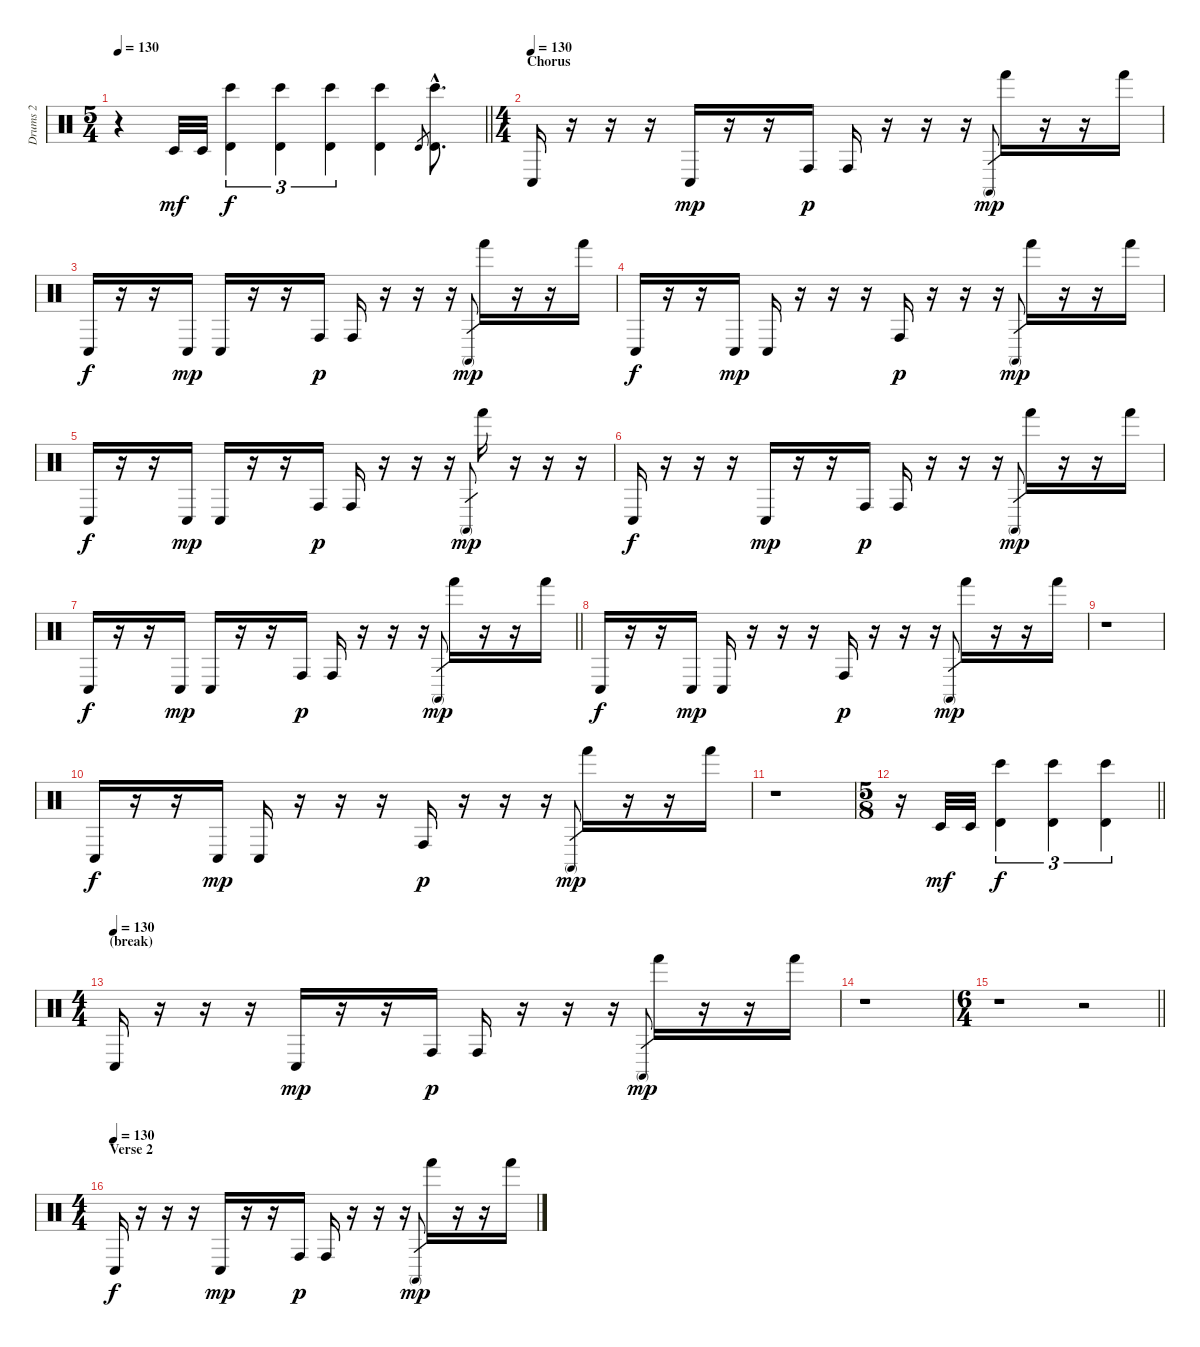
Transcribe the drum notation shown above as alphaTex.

\track ("Drums 2" "Drums 2") {instrument percussion}
\staff {score}
\articulation defaults
\ts (5 4)
\tempo 130
\clef neutral
\barLineRight lightlight
\ks c
r.4{dy mp} "Timbale low (hit)".32{dy mf} "Timbale low (hit)".32 ("Bongo High (hit)" "Timbale high (hit)").4{tu (3 2) dy f} ("Bongo High (hit)" "Timbale high (hit)").4{tu (3 2)} ("Bongo High (hit)" "Timbale high (hit)").4{tu (3 2)} ("Bongo High (hit)" "Timbale high (hit)").4 "Timbale high (hit)".8{gr} ("Bongo High (hit)"{hac} "Timbale high (hit)"{hac}).8{d} |
\ts (4 4)
\section ("" "Chorus")
\tempo (130)
"Conga low (hit)".16 r.16 r.16 r.16 "Conga low (hit)".16{dy mp} r.16 r.16 "Conga high (hit)".16{dy p} "Conga high (hit)".16 r.16 r.16 r.16 "Conga high (mute)".8{gr dy mp} "Hand (hit)".16 r.16 r.16 "Hand (hit)".16 |
"Conga low (hit)".16{dy f} r.16 r.16 "Conga low (hit)".16{dy mp} "Conga low (hit)".16 r.16 r.16 "Conga high (hit)".16{dy p} "Conga high (hit)".16 r.16 r.16 r.16 "Conga high (mute)".8{gr dy mp} "Hand (hit)".16 r.16 r.16 "Hand (hit)".16 |
"Conga low (hit)".16{dy f} r.16 r.16 "Conga low (hit)".16{dy mp} "Conga low (hit)".16 r.16 r.16 r.16 "Conga high (hit)".16{dy p} r.16 r.16 r.16 "Conga high (mute)".8{gr dy mp} "Hand (hit)".16 r.16 r.16 "Hand (hit)".16 |
"Conga low (hit)".16{dy f} r.16 r.16 "Conga low (hit)".16{dy mp} "Conga low (hit)".16 r.16 r.16 "Conga high (hit)".16{dy p} "Conga high (hit)".16 r.16 r.16 r.16 "Conga high (mute)".8{gr dy mp} "Hand (hit)".16 r.16 r.16 r.16 |
"Conga low (hit)".16{dy f} r.16 r.16 r.16 "Conga low (hit)".16{dy mp} r.16 r.16 "Conga high (hit)".16{dy p} "Conga high (hit)".16 r.16 r.16 r.16 "Conga high (mute)".8{gr dy mp} "Hand (hit)".16 r.16 r.16 "Hand (hit)".16 |
\barLineRight lightlight "Conga low (hit)".16{dy f}
r.16 r.16 "Conga low (hit)".16{dy mp} "Conga low (hit)".16 r.16 r.16 "Conga high (hit)".16{dy p} "Conga high (hit)".16 r.16 r.16 r.16 "Conga high (mute)".8{gr dy mp} "Hand (hit)".16 r.16 r.16 "Hand (hit)".16 |
"Conga low (hit)".16{dy f} r.16 r.16 "Conga low (hit)".16{dy mp} "Conga low (hit)".16 r.16 r.16 r.16 "Conga high (hit)".16{dy p} r.16 r.16 r.16 "Conga high (mute)".8{gr dy mp} "Hand (hit)".16 r.16 r.16 "Hand (hit)".16 |
r.1 |
"Conga low (hit)".16{dy f} r.16 r.16 "Conga low (hit)".16{dy mp} "Conga low (hit)".16 r.16 r.16 r.16 "Conga high (hit)".16{dy p} r.16 r.16 r.16 "Conga high (mute)".8{gr dy mp} "Hand (hit)".16 r.16 r.16 "Hand (hit)".16 |
r.1 |
\ts (5 8)
\barLineRight lightlight
r.16 "Timbale low (hit)".32{dy mf} "Timbale low (hit)".32 ("Bongo High (hit)" "Timbale high (hit)").4{tu (3 2) dy f} ("Bongo High (hit)" "Timbale high (hit)").4{tu (3 2)} ("Bongo High (hit)" "Timbale high (hit)").4{tu (3 2)} |
\ts (4 4)
\section ("" "(break)")
\tempo (130)
"Conga low (hit)".16 r.16 r.16 r.16 "Conga low (hit)".16{dy mp} r.16 r.16 "Conga high (hit)".16{dy p} "Conga high (hit)".16 r.16 r.16 r.16 "Conga high (mute)".8{gr dy mp} "Hand (hit)".16 r.16 r.16 "Hand (hit)".16 |
r.1 |
\ts (6 4)
\barLineRight lightlight
r.1 r.2 |
\ts (4 4)
\section ("" "Verse 2")
\tempo (130)
"Conga low (hit)".16{dy f} r.16 r.16 r.16 "Conga low (hit)".16{dy mp} r.16 r.16 "Conga high (hit)".16{dy p} "Conga high (hit)".16 r.16 r.16 r.16 "Conga high (mute)".8{gr dy mp} "Hand (hit)".16 r.16 r.16 "Hand (hit)".16
